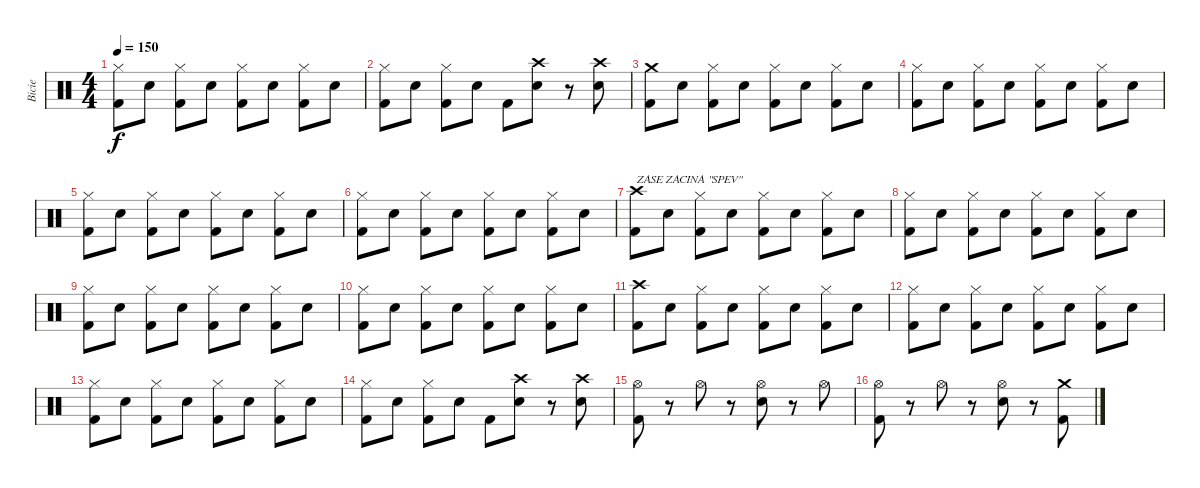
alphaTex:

\track ("Bicie" "Bicie") {instrument percussion}
\staff {score}
\articulation defaults
\ts (4 4)
\tempo 150
\clef neutral
\ks c
("Hi-Hat (closed)" "Kick (hit) 2").8{dy f} "Snare (hit) 2".8 ("Hi-Hat (closed)" "Kick (hit) 2").8 "Snare (hit) 2".8 ("Hi-Hat (closed)" "Kick (hit) 2").8 "Snare (hit) 2".8 ("Hi-Hat (closed)" "Kick (hit) 2").8 "Snare (hit) 2".8 |
("Hi-Hat (closed)" "Kick (hit) 2").8 "Snare (hit) 2".8 ("Hi-Hat (closed)" "Kick (hit) 2").8 "Snare (hit) 2".8 "Kick (hit) 2".8 ("Crash high (hit)" "Snare (hit) 2").8 r.8 ("Crash high (hit)" "Snare (hit) 2").8 |
("Crash medium (hit)" "Kick (hit) 2").8 "Snare (hit) 2".8 ("Hi-Hat (closed)" "Kick (hit) 2").8 "Snare (hit) 2".8 ("Hi-Hat (closed)" "Kick (hit) 2").8 "Snare (hit) 2".8 ("Hi-Hat (closed)" "Kick (hit) 2").8 "Snare (hit) 2".8 |
("Hi-Hat (closed)" "Kick (hit) 2").8 "Snare (hit) 2".8 ("Hi-Hat (closed)" "Kick (hit) 2").8 "Snare (hit) 2".8 ("Hi-Hat (closed)" "Kick (hit) 2").8 "Snare (hit) 2".8 ("Hi-Hat (closed)" "Kick (hit) 2").8 "Snare (hit) 2".8 |
("Hi-Hat (closed)" "Kick (hit) 2").8 "Snare (hit) 2".8 ("Hi-Hat (closed)" "Kick (hit) 2").8 "Snare (hit) 2".8 ("Hi-Hat (closed)" "Kick (hit) 2").8 "Snare (hit) 2".8 ("Hi-Hat (closed)" "Kick (hit) 2").8 "Snare (hit) 2".8 |
("Hi-Hat (closed)" "Kick (hit) 2").8 "Snare (hit) 2".8 ("Hi-Hat (closed)" "Kick (hit) 2").8 "Snare (hit) 2".8 ("Hi-Hat (closed)" "Kick (hit) 2").8 "Snare (hit) 2".8 ("Hi-Hat (closed)" "Kick (hit) 2").8 "Snare (hit) 2".8 |
("Crash high (hit)" "Kick (hit) 2").8{txt "ZASE ZACINA \"SPEV\""} "Snare (hit) 2".8 ("Hi-Hat (closed)" "Kick (hit) 2").8 "Snare (hit) 2".8 ("Hi-Hat (closed)" "Kick (hit) 2").8 "Snare (hit) 2".8 ("Hi-Hat (closed)" "Kick (hit) 2").8 "Snare (hit) 2".8 |
("Hi-Hat (closed)" "Kick (hit) 2").8 "Snare (hit) 2".8 ("Hi-Hat (closed)" "Kick (hit) 2").8 "Snare (hit) 2".8 ("Hi-Hat (closed)" "Kick (hit) 2").8 "Snare (hit) 2".8 ("Hi-Hat (closed)" "Kick (hit) 2").8 "Snare (hit) 2".8 |
("Hi-Hat (closed)" "Kick (hit) 2").8 "Snare (hit) 2".8 ("Hi-Hat (closed)" "Kick (hit) 2").8 "Snare (hit) 2".8 ("Hi-Hat (closed)" "Kick (hit) 2").8 "Snare (hit) 2".8 ("Hi-Hat (closed)" "Kick (hit) 2").8 "Snare (hit) 2".8 |
("Hi-Hat (closed)" "Kick (hit) 2").8 "Snare (hit) 2".8 ("Hi-Hat (closed)" "Kick (hit) 2").8 "Snare (hit) 2".8 ("Hi-Hat (closed)" "Kick (hit) 2").8 "Snare (hit) 2".8 ("Hi-Hat (closed)" "Kick (hit) 2").8 "Snare (hit) 2".8 |
("Crash high (hit)" "Kick (hit) 2").8 "Snare (hit) 2".8 ("Hi-Hat (closed)" "Kick (hit) 2").8 "Snare (hit) 2".8 ("Hi-Hat (closed)" "Kick (hit) 2").8 "Snare (hit) 2".8 ("Hi-Hat (closed)" "Kick (hit) 2").8 "Snare (hit) 2".8 |
("Hi-Hat (closed)" "Kick (hit) 2").8 "Snare (hit) 2".8 ("Hi-Hat (closed)" "Kick (hit) 2").8 "Snare (hit) 2".8 ("Hi-Hat (closed)" "Kick (hit) 2").8 "Snare (hit) 2".8 ("Hi-Hat (closed)" "Kick (hit) 2").8 "Snare (hit) 2".8 |
("Hi-Hat (closed)" "Kick (hit) 2").8 "Snare (hit) 2".8 ("Hi-Hat (closed)" "Kick (hit) 2").8 "Snare (hit) 2".8 ("Hi-Hat (closed)" "Kick (hit) 2").8 "Snare (hit) 2".8 ("Hi-Hat (closed)" "Kick (hit) 2").8 "Snare (hit) 2".8 |
("Hi-Hat (closed)" "Kick (hit) 2").8 "Snare (hit) 2".8 ("Hi-Hat (closed)" "Kick (hit) 2").8 "Snare (hit) 2".8 "Kick (hit) 2".8 ("Crash high (hit)" "Snare (hit) 2").8 r.8 ("Crash high (hit)" "Snare (hit) 2").8 |
("Hi-Hat (open)" "Kick (hit) 2").8 r.8 "Hi-Hat (open)".8 r.8 ("Hi-Hat (open)" "Snare (hit) 2").8 r.8 "Hi-Hat (open)".8 |
("Hi-Hat (open)" "Kick (hit) 2").8 r.8 "Hi-Hat (open)".8 r.8 ("Hi-Hat (open)" "Snare (hit) 2").8 r.8 ("Crash medium (hit)" "Kick (hit) 2").8
